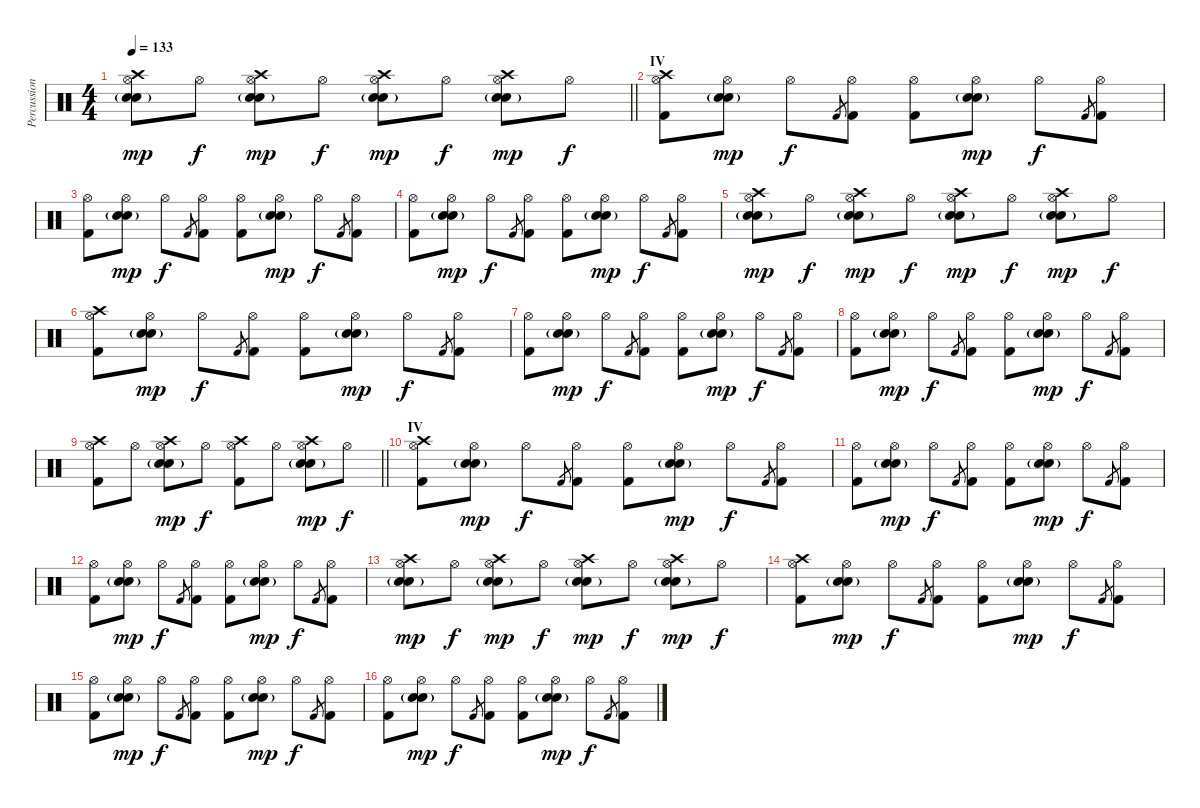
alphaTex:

\track ("Percussion" "Percussion") {instrument percussion}
\staff {score}
\articulation defaults
\ts (4 4)
\tempo 133
\clef neutral
\barLineRight lightlight
\ks c
("Crash high (hit)" "Electric Snare (hit)" "Snare (hit) 2"{g} "Hi-Hat (open)").8{dy mp} "Hi-Hat (open)".8{dy f} ("Crash high (hit)" "Electric Snare (hit)" "Snare (hit) 2"{g} "Hi-Hat (open)").8{dy mp} "Hi-Hat (open)".8{dy f} ("Crash high (hit)" "Electric Snare (hit)" "Snare (hit) 2"{g} "Hi-Hat (open)").8{dy mp} "Hi-Hat (open)".8{dy f} ("Crash high (hit)" "Electric Snare (hit)" "Snare (hit) 2"{g} "Hi-Hat (open)").8{dy mp} "Hi-Hat (open)".8{dy f} |
\section ("" "IV")
("Crash high (hit)" "Kick (hit) 2" "Hi-Hat (open)").8 ("Electric Snare (hit)" "Snare (hit) 2"{g} "Hi-Hat (open)").8{dy mp} "Hi-Hat (open)".8{dy f} "Kick (hit) 2".8{gr} ("Kick (hit) 2" "Hi-Hat (open)").8 ("Kick (hit) 2" "Hi-Hat (open)").8 ("Electric Snare (hit)" "Snare (hit) 2"{g} "Hi-Hat (open)").8{dy mp} "Hi-Hat (open)".8{dy f} "Kick (hit) 2".8{gr} ("Kick (hit) 2" "Hi-Hat (open)").8 |
("Kick (hit) 2" "Hi-Hat (open)").8 ("Electric Snare (hit)" "Snare (hit) 2"{g} "Hi-Hat (open)").8{dy mp} "Hi-Hat (open)".8{dy f} "Kick (hit) 2".8{gr} ("Kick (hit) 2" "Hi-Hat (open)").8 ("Kick (hit) 2" "Hi-Hat (open)").8 ("Electric Snare (hit)" "Snare (hit) 2"{g} "Hi-Hat (open)").8{dy mp} "Hi-Hat (open)".8{dy f} "Kick (hit) 2".8{gr} ("Kick (hit) 2" "Hi-Hat (open)").8 |
("Kick (hit) 2" "Hi-Hat (open)").8 ("Electric Snare (hit)" "Snare (hit) 2"{g} "Hi-Hat (open)").8{dy mp} "Hi-Hat (open)".8{dy f} "Kick (hit) 2".8{gr} ("Kick (hit) 2" "Hi-Hat (open)").8 ("Kick (hit) 2" "Hi-Hat (open)").8 ("Electric Snare (hit)" "Snare (hit) 2"{g} "Hi-Hat (open)").8{dy mp} "Hi-Hat (open)".8{dy f} "Kick (hit) 2".8{gr} ("Kick (hit) 2" "Hi-Hat (open)").8 |
("Crash high (hit)" "Electric Snare (hit)" "Snare (hit) 2"{g} "Hi-Hat (open)").8{dy mp} "Hi-Hat (open)".8{dy f} ("Crash high (hit)" "Electric Snare (hit)" "Snare (hit) 2"{g} "Hi-Hat (open)").8{dy mp} "Hi-Hat (open)".8{dy f} ("Crash high (hit)" "Electric Snare (hit)" "Snare (hit) 2"{g} "Hi-Hat (open)").8{dy mp} "Hi-Hat (open)".8{dy f} ("Crash high (hit)" "Electric Snare (hit)" "Snare (hit) 2"{g} "Hi-Hat (open)").8{dy mp} "Hi-Hat (open)".8{dy f} |
("Crash high (hit)" "Kick (hit) 2" "Hi-Hat (open)").8 ("Electric Snare (hit)" "Snare (hit) 2"{g} "Hi-Hat (open)").8{dy mp} "Hi-Hat (open)".8{dy f} "Kick (hit) 2".8{gr} ("Kick (hit) 2" "Hi-Hat (open)").8 ("Kick (hit) 2" "Hi-Hat (open)").8 ("Electric Snare (hit)" "Snare (hit) 2"{g} "Hi-Hat (open)").8{dy mp} "Hi-Hat (open)".8{dy f} "Kick (hit) 2".8{gr} ("Kick (hit) 2" "Hi-Hat (open)").8 |
("Kick (hit) 2" "Hi-Hat (open)").8 ("Electric Snare (hit)" "Snare (hit) 2"{g} "Hi-Hat (open)").8{dy mp} "Hi-Hat (open)".8{dy f} "Kick (hit) 2".8{gr} ("Kick (hit) 2" "Hi-Hat (open)").8 ("Kick (hit) 2" "Hi-Hat (open)").8 ("Electric Snare (hit)" "Snare (hit) 2"{g} "Hi-Hat (open)").8{dy mp} "Hi-Hat (open)".8{dy f} "Kick (hit) 2".8{gr} ("Kick (hit) 2" "Hi-Hat (open)").8 |
("Kick (hit) 2" "Hi-Hat (open)").8 ("Electric Snare (hit)" "Snare (hit) 2"{g} "Hi-Hat (open)").8{dy mp} "Hi-Hat (open)".8{dy f} "Kick (hit) 2".8{gr} ("Kick (hit) 2" "Hi-Hat (open)").8 ("Kick (hit) 2" "Hi-Hat (open)").8 ("Electric Snare (hit)" "Snare (hit) 2"{g} "Hi-Hat (open)").8{dy mp} "Hi-Hat (open)".8{dy f} "Kick (hit) 2".8{gr} ("Kick (hit) 2" "Hi-Hat (open)").8 |
\barLineRight lightlight
("Crash high (hit)" "Kick (hit) 2" "Hi-Hat (open)").8 "Hi-Hat (open)".8 ("Crash high (hit)" "Electric Snare (hit)" "Snare (hit) 2"{g} "Hi-Hat (open)").8{dy mp} "Hi-Hat (open)".8{dy f} ("Crash high (hit)" "Kick (hit) 2" "Hi-Hat (open)").8 "Hi-Hat (open)".8 ("Crash high (hit)" "Electric Snare (hit)" "Snare (hit) 2"{g} "Hi-Hat (open)").8{dy mp} "Hi-Hat (open)".8{dy f} |
\section ("" "IV")
("Crash high (hit)" "Kick (hit) 2" "Hi-Hat (open)").8 ("Electric Snare (hit)" "Snare (hit) 2"{g} "Hi-Hat (open)").8{dy mp} "Hi-Hat (open)".8{dy f} "Kick (hit) 2".8{gr} ("Kick (hit) 2" "Hi-Hat (open)").8 ("Kick (hit) 2" "Hi-Hat (open)").8 ("Electric Snare (hit)" "Snare (hit) 2"{g} "Hi-Hat (open)").8{dy mp} "Hi-Hat (open)".8{dy f} "Kick (hit) 2".8{gr} ("Kick (hit) 2" "Hi-Hat (open)").8 |
("Kick (hit) 2" "Hi-Hat (open)").8 ("Electric Snare (hit)" "Snare (hit) 2"{g} "Hi-Hat (open)").8{dy mp} "Hi-Hat (open)".8{dy f} "Kick (hit) 2".8{gr} ("Kick (hit) 2" "Hi-Hat (open)").8 ("Kick (hit) 2" "Hi-Hat (open)").8 ("Electric Snare (hit)" "Snare (hit) 2"{g} "Hi-Hat (open)").8{dy mp} "Hi-Hat (open)".8{dy f} "Kick (hit) 2".8{gr} ("Kick (hit) 2" "Hi-Hat (open)").8 |
("Kick (hit) 2" "Hi-Hat (open)").8 ("Electric Snare (hit)" "Snare (hit) 2"{g} "Hi-Hat (open)").8{dy mp} "Hi-Hat (open)".8{dy f} "Kick (hit) 2".8{gr} ("Kick (hit) 2" "Hi-Hat (open)").8 ("Kick (hit) 2" "Hi-Hat (open)").8 ("Electric Snare (hit)" "Snare (hit) 2"{g} "Hi-Hat (open)").8{dy mp} "Hi-Hat (open)".8{dy f} "Kick (hit) 2".8{gr} ("Kick (hit) 2" "Hi-Hat (open)").8 |
("Crash high (hit)" "Electric Snare (hit)" "Snare (hit) 2"{g} "Hi-Hat (open)").8{dy mp} "Hi-Hat (open)".8{dy f} ("Crash high (hit)" "Electric Snare (hit)" "Snare (hit) 2"{g} "Hi-Hat (open)").8{dy mp} "Hi-Hat (open)".8{dy f} ("Crash high (hit)" "Electric Snare (hit)" "Snare (hit) 2"{g} "Hi-Hat (open)").8{dy mp} "Hi-Hat (open)".8{dy f} ("Crash high (hit)" "Electric Snare (hit)" "Snare (hit) 2"{g} "Hi-Hat (open)").8{dy mp} "Hi-Hat (open)".8{dy f} |
("Crash high (hit)" "Kick (hit) 2" "Hi-Hat (open)").8 ("Electric Snare (hit)" "Snare (hit) 2"{g} "Hi-Hat (open)").8{dy mp} "Hi-Hat (open)".8{dy f} "Kick (hit) 2".8{gr} ("Kick (hit) 2" "Hi-Hat (open)").8 ("Kick (hit) 2" "Hi-Hat (open)").8 ("Electric Snare (hit)" "Snare (hit) 2"{g} "Hi-Hat (open)").8{dy mp} "Hi-Hat (open)".8{dy f} "Kick (hit) 2".8{gr} ("Kick (hit) 2" "Hi-Hat (open)").8 |
("Kick (hit) 2" "Hi-Hat (open)").8 ("Electric Snare (hit)" "Snare (hit) 2"{g} "Hi-Hat (open)").8{dy mp} "Hi-Hat (open)".8{dy f} "Kick (hit) 2".8{gr} ("Kick (hit) 2" "Hi-Hat (open)").8 ("Kick (hit) 2" "Hi-Hat (open)").8 ("Electric Snare (hit)" "Snare (hit) 2"{g} "Hi-Hat (open)").8{dy mp} "Hi-Hat (open)".8{dy f} "Kick (hit) 2".8{gr} ("Kick (hit) 2" "Hi-Hat (open)").8 |
("Kick (hit) 2" "Hi-Hat (open)").8 ("Electric Snare (hit)" "Snare (hit) 2"{g} "Hi-Hat (open)").8{dy mp} "Hi-Hat (open)".8{dy f} "Kick (hit) 2".8{gr} ("Kick (hit) 2" "Hi-Hat (open)").8 ("Kick (hit) 2" "Hi-Hat (open)").8 ("Electric Snare (hit)" "Snare (hit) 2"{g} "Hi-Hat (open)").8{dy mp} "Hi-Hat (open)".8{dy f} "Kick (hit) 2".8{gr} ("Kick (hit) 2" "Hi-Hat (open)").8
